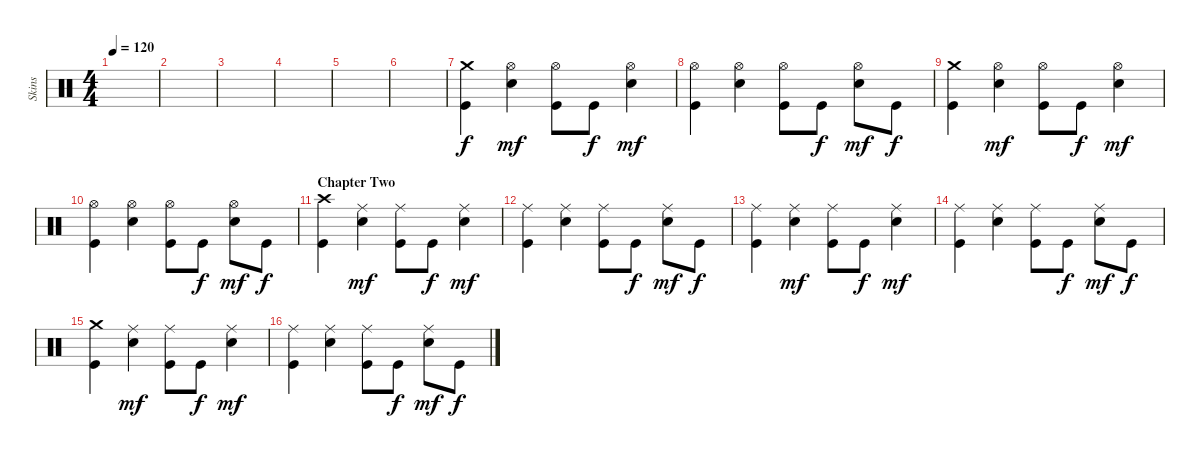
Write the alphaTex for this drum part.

\track ("Skins" "Skins") {instrument percussion}
\staff {score}
\articulation defaults
\ts (4 4)
\tempo 120
\clef neutral
\ks c
|
|
|
|
|
|
("Crash medium (hit)" "Kick (hit)").4 ("Hi-Hat (open)" "Snare (hit) 2").4{dy mf} ("Hi-Hat (open)" "Kick (hit)").8 "Kick (hit)".8{dy f} ("Hi-Hat (open)" "Snare (hit) 2").4{dy mf} |
("Hi-Hat (open)" "Kick (hit)").4 ("Hi-Hat (open)" "Snare (hit) 2").4 ("Hi-Hat (open)" "Kick (hit)").8 "Kick (hit)".8{dy f} ("Hi-Hat (open)" "Snare (hit) 2").8{dy mf} "Kick (hit)".8{dy f} |
("Crash medium (hit)" "Kick (hit)").4 ("Hi-Hat (open)" "Snare (hit) 2").4{dy mf} ("Hi-Hat (open)" "Kick (hit)").8 "Kick (hit)".8{dy f} ("Hi-Hat (open)" "Snare (hit) 2").4{dy mf} |
("Hi-Hat (open)" "Kick (hit)").4 ("Hi-Hat (open)" "Snare (hit) 2").4 ("Hi-Hat (open)" "Kick (hit)").8 "Kick (hit)".8{dy f} ("Hi-Hat (open)" "Snare (hit) 2").8{dy mf} "Kick (hit)".8{dy f} |
\section ("" "Chapter Two")
("Crash high (hit)" "Kick (hit)").4 ("Ride (middle)" "Snare (hit) 2").4{dy mf} ("Ride (middle)" "Kick (hit)").8 "Kick (hit)".8{dy f} ("Ride (middle)" "Snare (hit) 2").4{dy mf} |
("Ride (middle)" "Kick (hit)").4 ("Ride (middle)" "Snare (hit) 2").4 ("Ride (middle)" "Kick (hit)").8 "Kick (hit)".8{dy f} ("Ride (middle)" "Snare (hit) 2").8{dy mf} "Kick (hit)".8{dy f} |
("Ride (middle)" "Kick (hit)").4 ("Ride (middle)" "Snare (hit) 2").4{dy mf} ("Ride (middle)" "Kick (hit)").8 "Kick (hit)".8{dy f} ("Ride (middle)" "Snare (hit) 2").4{dy mf} |
("Ride (middle)" "Kick (hit)").4 ("Ride (middle)" "Snare (hit) 2").4 ("Ride (middle)" "Kick (hit)").8 "Kick (hit)".8{dy f} ("Ride (middle)" "Snare (hit) 2").8{dy mf} "Kick (hit)".8{dy f} |
("Crash medium (hit)" "Kick (hit)").4 ("Ride (middle)" "Snare (hit) 2").4{dy mf} ("Ride (middle)" "Kick (hit)").8 "Kick (hit)".8{dy f} ("Ride (middle)" "Snare (hit) 2").4{dy mf} |
("Ride (middle)" "Kick (hit)").4 ("Ride (middle)" "Snare (hit) 2").4 ("Ride (middle)" "Kick (hit)").8 "Kick (hit)".8{dy f} ("Ride (middle)" "Snare (hit) 2").8{dy mf} "Kick (hit)".8{dy f}
